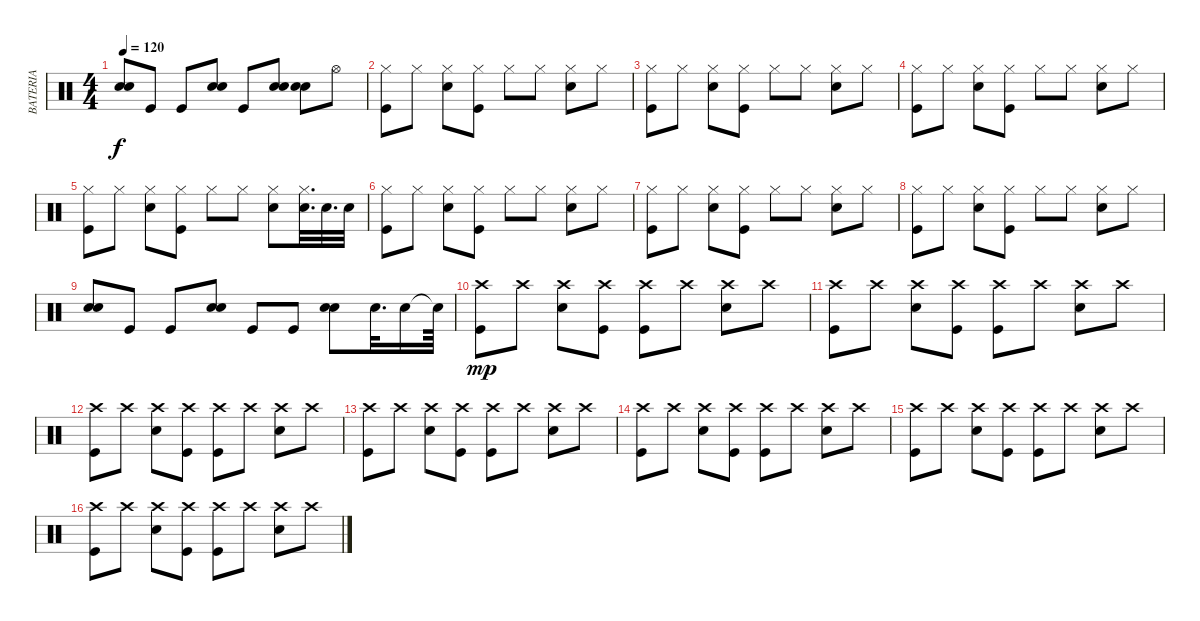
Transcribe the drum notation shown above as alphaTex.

\track ("BATERIA" "BATERIA") {instrument percussion}
\staff {score}
\articulation defaults
\ts (4 4)
\tempo 120
\clef neutral
\ks c
("Snare (hit) 2" "Snare (hit) 2").8{dy f} "Kick (hit)".8 "Kick (hit)".8 ("Snare (hit) 2" "Snare (hit) 2").8 "Kick (hit)".8 ("Snare (hit) 2" "Snare (hit) 2").8 ("Snare (hit) 2" "Snare (hit) 2").8 "Hi-Hat (open)".8 |
("Hi-Hat (closed)" "Kick (hit)").8 "Hi-Hat (closed)".8 ("Hi-Hat (closed)" "Snare (hit) 2").8 ("Hi-Hat (closed)" "Kick (hit)").8 "Hi-Hat (closed)".8 "Hi-Hat (closed)".8 ("Hi-Hat (closed)" "Snare (hit) 2").8 "Hi-Hat (closed)".8 |
("Hi-Hat (closed)" "Kick (hit)").8 "Hi-Hat (closed)".8 ("Hi-Hat (closed)" "Snare (hit) 2").8 ("Hi-Hat (closed)" "Kick (hit)").8 "Hi-Hat (closed)".8 "Hi-Hat (closed)".8 ("Hi-Hat (closed)" "Snare (hit) 2").8 "Hi-Hat (closed)".8 |
("Hi-Hat (closed)" "Kick (hit)").8 "Hi-Hat (closed)".8 ("Hi-Hat (closed)" "Snare (hit) 2").8 ("Hi-Hat (closed)" "Kick (hit)").8 "Hi-Hat (closed)".8 "Hi-Hat (closed)".8 ("Hi-Hat (closed)" "Snare (hit) 2").8 "Hi-Hat (closed)".8 |
("Hi-Hat (closed)" "Kick (hit)").8 "Hi-Hat (closed)".8 ("Hi-Hat (closed)" "Snare (hit) 2").8 ("Hi-Hat (closed)" "Kick (hit)").8 "Hi-Hat (closed)".8 "Hi-Hat (closed)".8 ("Hi-Hat (closed)" "Snare (hit) 2").8 ("Hi-Hat (closed)" "Snare (hit) 2").32{d} "Snare (hit) 2".32{d} "Snare (hit) 2".32 |
("Hi-Hat (closed)" "Kick (hit)").8 "Hi-Hat (closed)".8 ("Hi-Hat (closed)" "Snare (hit) 2").8 ("Hi-Hat (closed)" "Kick (hit)").8 "Hi-Hat (closed)".8 "Hi-Hat (closed)".8 ("Hi-Hat (closed)" "Snare (hit) 2").8 "Hi-Hat (closed)".8 |
("Hi-Hat (closed)" "Kick (hit)").8 "Hi-Hat (closed)".8 ("Hi-Hat (closed)" "Snare (hit) 2").8 ("Hi-Hat (closed)" "Kick (hit)").8 "Hi-Hat (closed)".8 "Hi-Hat (closed)".8 ("Hi-Hat (closed)" "Snare (hit) 2").8 "Hi-Hat (closed)".8 |
("Hi-Hat (closed)" "Kick (hit)").8 "Hi-Hat (closed)".8 ("Hi-Hat (closed)" "Snare (hit) 2").8 ("Hi-Hat (closed)" "Kick (hit)").8 "Hi-Hat (closed)".8 "Hi-Hat (closed)".8 ("Hi-Hat (closed)" "Snare (hit) 2").8 "Hi-Hat (closed)".8 |
("Snare (hit) 2" "Snare (hit) 2").8 "Kick (hit)".8 "Kick (hit)".8 ("Snare (hit) 2" "Snare (hit) 2").8 "Kick (hit)".8 "Kick (hit)".8 ("Snare (hit) 2" "Snare (hit) 2").8 "Snare (hit) 2".32{d} "Snare (hit) 2".16 "Snare (hit)"{t}.64 |
("Crash high (hit)" "Kick (hit)").8{dy mp} "Crash high (hit)".8 ("Crash high (hit)" "Snare (hit) 2").8 ("Crash high (hit)" "Kick (hit)").8 ("Crash high (hit)" "Kick (hit)").8 "Crash high (hit)".8 ("Crash high (hit)" "Snare (hit) 2").8 "Crash high (hit)".8 |
("Crash high (hit)" "Kick (hit)").8 "Crash high (hit)".8 ("Crash high (hit)" "Snare (hit) 2").8 ("Crash high (hit)" "Kick (hit)").8 ("Crash high (hit)" "Kick (hit)").8 "Crash high (hit)".8 ("Crash high (hit)" "Snare (hit) 2").8 "Crash high (hit)".8 |
("Crash high (hit)" "Kick (hit)").8 "Crash high (hit)".8 ("Crash high (hit)" "Snare (hit) 2").8 ("Crash high (hit)" "Kick (hit)").8 ("Crash high (hit)" "Kick (hit)").8 "Crash high (hit)".8 ("Crash high (hit)" "Snare (hit) 2").8 "Crash high (hit)".8 |
("Crash high (hit)" "Kick (hit)").8 "Crash high (hit)".8 ("Crash high (hit)" "Snare (hit) 2").8 ("Crash high (hit)" "Kick (hit)").8 ("Crash high (hit)" "Kick (hit)").8 "Crash high (hit)".8 ("Crash high (hit)" "Snare (hit) 2").8 "Crash high (hit)".8 |
("Crash high (hit)" "Kick (hit)").8 "Crash high (hit)".8 ("Crash high (hit)" "Snare (hit) 2").8 ("Crash high (hit)" "Kick (hit)").8 ("Crash high (hit)" "Kick (hit)").8 "Crash high (hit)".8 ("Crash high (hit)" "Snare (hit) 2").8 "Crash high (hit)".8 |
("Crash high (hit)" "Kick (hit)").8 "Crash high (hit)".8 ("Crash high (hit)" "Snare (hit) 2").8 ("Crash high (hit)" "Kick (hit)").8 ("Crash high (hit)" "Kick (hit)").8 "Crash high (hit)".8 ("Crash high (hit)" "Snare (hit) 2").8 "Crash high (hit)".8 |
("Crash high (hit)" "Kick (hit)").8 "Crash high (hit)".8 ("Crash high (hit)" "Snare (hit) 2").8 ("Crash high (hit)" "Kick (hit)").8 ("Crash high (hit)" "Kick (hit)").8 "Crash high (hit)".8 ("Crash high (hit)" "Snare (hit) 2").8 "Crash high (hit)".8
